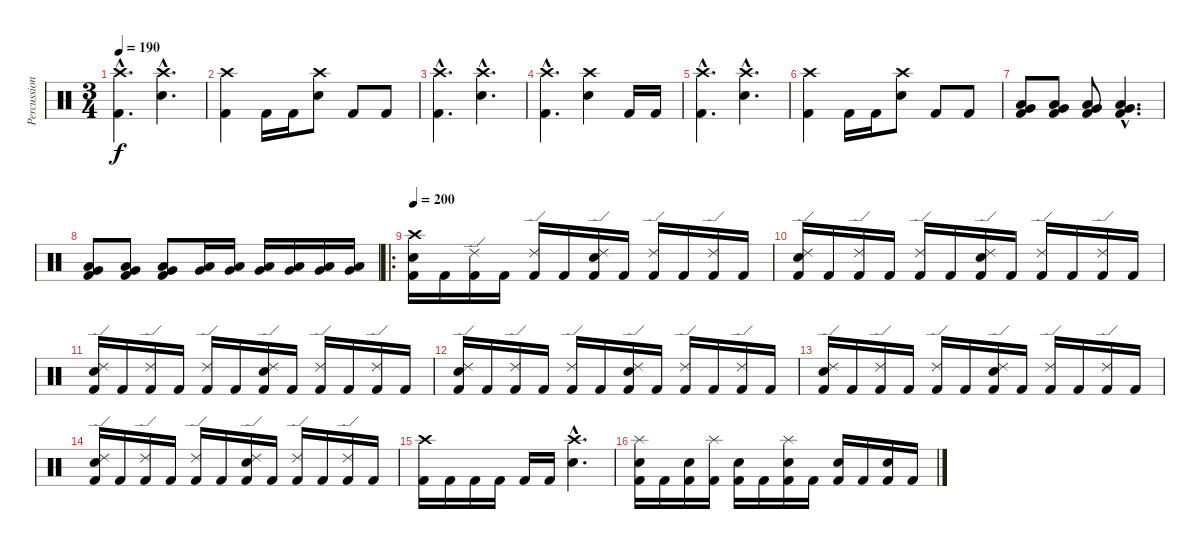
\track ("Percussion" "Percussion") {instrument percussion}
\staff {score}
\articulation defaults
\ts (3 4)
\tempo 190
\clef neutral
\ks c
("Crash high (hit)"{hac} "Kick (hit) 2"{hac}).4{d dy f} ("Crash high (hit)"{hac} "Electric Snare (hit)"{hac}).4{d} |
("Crash high (hit)" "Kick (hit) 2").4 "Kick (hit) 2".16 "Kick (hit) 2".16 ("Crash high (hit)" "Electric Snare (hit)").8 "Kick (hit) 2".8 "Kick (hit) 2".8 |
("Crash high (hit)"{hac} "Kick (hit) 2"{hac}).4{d} ("Crash high (hit)"{hac} "Electric Snare (hit)"{hac}).4{d} |
("Crash high (hit)"{hac} "Kick (hit) 2"{hac}).4{d} ("Crash high (hit)" "Electric Snare (hit)").4 "Kick (hit) 2".16 "Kick (hit) 2".16 |
("Crash high (hit)"{hac} "Kick (hit) 2"{hac}).4{d} ("Crash high (hit)"{hac} "Electric Snare (hit)"{hac}).4{d} |
("Crash high (hit)" "Kick (hit) 2").4 "Kick (hit) 2".16 "Kick (hit) 2".16 ("Crash high (hit)" "Electric Snare (hit)").8 "Kick (hit) 2".8 "Kick (hit) 2".8 |
("Low Floor Tom (hit)" "Very Low Tom (hit)" "Kick (hit) 2").8 ("Low Floor Tom (hit)" "Very Low Tom (hit)" "Kick (hit) 2").8 ("Low Floor Tom (hit)" "Very Low Tom (hit)" "Kick (hit) 2").8 ("Low Floor Tom (hit)"{hac} "Very Low Tom (hit)"{hac} "Kick (hit) 2"{hac}).4{d} |
("Low Floor Tom (hit)" "Very Low Tom (hit)" "Kick (hit) 2").8 ("Low Floor Tom (hit)" "Very Low Tom (hit)" "Kick (hit) 2").8 ("Low Floor Tom (hit)" "Very Low Tom (hit)" "Kick (hit) 2").8 ("Low Floor Tom (hit)" "Very Low Tom (hit)").16 ("Low Floor Tom (hit)" "Very Low Tom (hit)").16 ("Low Floor Tom (hit)" "Very Low Tom (hit)").16 ("Low Floor Tom (hit)" "Very Low Tom (hit)").16 ("Low Floor Tom (hit)" "Very Low Tom (hit)").16 ("Low Floor Tom (hit)" "Very Low Tom (hit)").16 |
\ro
\tempo 200
("Crash high (hit)" "Electric Snare (hit)" "Kick (hit) 2").16 "Kick (hit) 2".16 ("Ride (edge) 2" "Kick (hit) 2").16 "Kick (hit) 2".16 ("Ride (edge) 2" "Kick (hit) 2").16 "Kick (hit) 2".16 ("Ride (edge) 2" "Electric Snare (hit)" "Kick (hit) 2").16 "Kick (hit) 2".16 ("Ride (edge) 2" "Kick (hit) 2").16 "Kick (hit) 2".16 ("Ride (edge) 2" "Kick (hit) 2").16 "Kick (hit) 2".16 |
("Ride (edge) 2" "Electric Snare (hit)" "Kick (hit) 2").16 "Kick (hit) 2".16 ("Ride (edge) 2" "Kick (hit) 2").16 "Kick (hit) 2".16 ("Ride (edge) 2" "Kick (hit) 2").16 "Kick (hit) 2".16 ("Ride (edge) 2" "Electric Snare (hit)" "Kick (hit) 2").16 "Kick (hit) 2".16 ("Ride (edge) 2" "Kick (hit) 2").16 "Kick (hit) 2".16 ("Ride (edge) 2" "Kick (hit) 2").16 "Kick (hit) 2".16 |
("Ride (edge) 2" "Electric Snare (hit)" "Kick (hit) 2").16 "Kick (hit) 2".16 ("Ride (edge) 2" "Kick (hit) 2").16 "Kick (hit) 2".16 ("Ride (edge) 2" "Kick (hit) 2").16 "Kick (hit) 2".16 ("Ride (edge) 2" "Electric Snare (hit)" "Kick (hit) 2").16 "Kick (hit) 2".16 ("Ride (edge) 2" "Kick (hit) 2").16 "Kick (hit) 2".16 ("Ride (edge) 2" "Kick (hit) 2").16 "Kick (hit) 2".16 |
("Ride (edge) 2" "Electric Snare (hit)" "Kick (hit) 2").16 "Kick (hit) 2".16 ("Ride (edge) 2" "Kick (hit) 2").16 "Kick (hit) 2".16 ("Ride (edge) 2" "Kick (hit) 2").16 "Kick (hit) 2".16 ("Ride (edge) 2" "Electric Snare (hit)" "Kick (hit) 2").16 "Kick (hit) 2".16 ("Ride (edge) 2" "Kick (hit) 2").16 "Kick (hit) 2".16 ("Ride (edge) 2" "Kick (hit) 2").16 "Kick (hit) 2".16 |
("Ride (edge) 2" "Electric Snare (hit)" "Kick (hit) 2").16 "Kick (hit) 2".16 ("Ride (edge) 2" "Kick (hit) 2").16 "Kick (hit) 2".16 ("Ride (edge) 2" "Kick (hit) 2").16 "Kick (hit) 2".16 ("Ride (edge) 2" "Electric Snare (hit)" "Kick (hit) 2").16 "Kick (hit) 2".16 ("Ride (edge) 2" "Kick (hit) 2").16 "Kick (hit) 2".16 ("Ride (edge) 2" "Kick (hit) 2").16 "Kick (hit) 2".16 |
("Ride (edge) 2" "Electric Snare (hit)" "Kick (hit) 2").16 "Kick (hit) 2".16 ("Ride (edge) 2" "Kick (hit) 2").16 "Kick (hit) 2".16 ("Ride (edge) 2" "Kick (hit) 2").16 "Kick (hit) 2".16 ("Ride (edge) 2" "Electric Snare (hit)" "Kick (hit) 2").16 "Kick (hit) 2".16 ("Ride (edge) 2" "Kick (hit) 2").16 "Kick (hit) 2".16 ("Ride (edge) 2" "Kick (hit) 2").16 "Kick (hit) 2".16 |
("Crash high (hit)" "Kick (hit) 2").16 "Kick (hit) 2".16 "Kick (hit) 2".16 "Kick (hit) 2".16 "Kick (hit) 2".16 "Kick (hit) 2".16 ("Crash high (hit)"{hac} "Electric Snare (hit)"{hac}).4{d} |
("Splash (hit)" "Electric Snare (hit)" "Kick (hit) 2").16 "Kick (hit) 2".16 ("Electric Snare (hit)" "Kick (hit) 2").16 ("Splash (hit)" "Kick (hit) 2").16 ("Electric Snare (hit)" "Kick (hit) 2").16 "Kick (hit) 2".16 ("Splash (hit)" "Electric Snare (hit)" "Kick (hit) 2").16 "Kick (hit) 2".16 ("Electric Snare (hit)" "Kick (hit) 2").16 "Kick (hit) 2".16 ("Electric Snare (hit)" "Kick (hit) 2").16 "Kick (hit) 2".16
